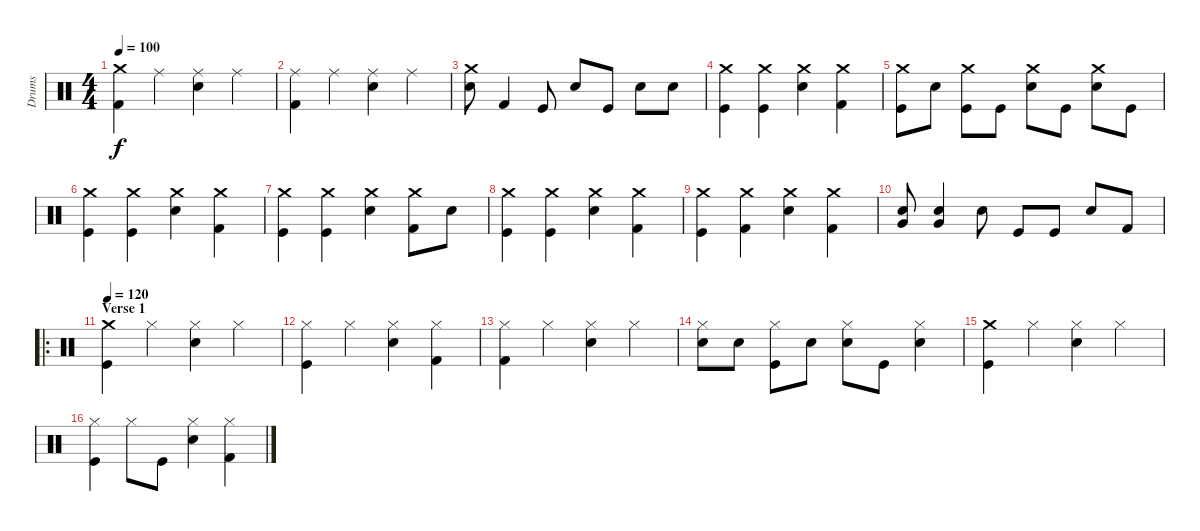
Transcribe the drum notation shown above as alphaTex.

\track ("Drums" "Drums") {instrument percussion}
\staff {score}
\articulation defaults
\ts (4 4)
\tempo 100
\clef neutral
\ks c
("Crash medium (hit)" "Kick (hit) 2").4{dy f} "Ride (middle)".4 ("Ride (middle)" "Electric Snare (hit)").4 "Ride (middle)".4 |
("Ride (middle)" "Kick (hit) 2").4 "Ride (middle)".4 ("Ride (middle)" "Electric Snare (hit)").4 "Ride (middle)".4 |
("Crash medium (hit)" "Electric Snare (hit)").8 "Kick (hit) 2".4 "Kick (hit)".8 "Electric Snare (hit)".8 "Kick (hit)".8 "Electric Snare (hit)".8 "Electric Snare (hit)".8 |
("Crash medium (hit)" "Kick (hit)").4 ("Crash medium (hit)" "Kick (hit)").4 ("Crash medium (hit)" "Electric Snare (hit)").4 ("Crash medium (hit)" "Kick (hit) 2").4 |
("Crash medium (hit)" "Kick (hit)").8 "Electric Snare (hit)".8 ("Crash medium (hit)" "Kick (hit)").8 "Kick (hit)".8 ("Crash medium (hit)" "Electric Snare (hit)").8 "Kick (hit)".8 ("Crash medium (hit)" "Electric Snare (hit)").8 "Kick (hit)".8 |
("Crash medium (hit)" "Kick (hit)").4 ("Crash medium (hit)" "Kick (hit)").4 ("Crash medium (hit)" "Electric Snare (hit)").4 ("Crash medium (hit)" "Kick (hit) 2").4 |
("Crash medium (hit)" "Kick (hit)").4 ("Crash medium (hit)" "Kick (hit)").4 ("Crash medium (hit)" "Electric Snare (hit)").4 ("Crash medium (hit)" "Kick (hit) 2").8 "Electric Snare (hit)".8 |
("Crash medium (hit)" "Kick (hit)").4 ("Crash medium (hit)" "Kick (hit)").4 ("Crash medium (hit)" "Electric Snare (hit)").4 ("Crash medium (hit)" "Kick (hit) 2").4 |
("Crash medium (hit)" "Kick (hit)").4 ("Crash medium (hit)" "Kick (hit) 2").4 ("Crash medium (hit)" "Electric Snare (hit)").4 ("Crash medium (hit)" "Kick (hit) 2").4 |
("Electric Snare (hit)" "Very Low Tom (hit)").8 ("Electric Snare (hit)" "Very Low Tom (hit)").4 "Electric Snare (hit)".8 "Kick (hit)".8 "Kick (hit)".8 "Electric Snare (hit)".8 "Kick (hit) 2".8 |
\ro
\section ("" "Verse 1")
\tempo 120
("Crash medium (hit)" "Kick (hit)").4 "Hi-Hat (closed)".4 ("Hi-Hat (closed)" "Electric Snare (hit)").4 "Hi-Hat (closed)".4 |
("Hi-Hat (closed)" "Kick (hit)").4 "Hi-Hat (closed)".4 ("Hi-Hat (closed)" "Electric Snare (hit)").4 ("Hi-Hat (closed)" "Kick (hit) 2").4 |
("Hi-Hat (closed)" "Kick (hit) 2").4 "Hi-Hat (closed)".4 ("Hi-Hat (closed)" "Electric Snare (hit)").4 "Hi-Hat (closed)".4 |
("Hi-Hat (closed)" "Electric Snare (hit)").8 "Electric Snare (hit)".8 ("Hi-Hat (closed)" "Kick (hit)").8 "Electric Snare (hit)".8 ("Hi-Hat (closed)" "Electric Snare (hit)").8 "Kick (hit)".8 ("Hi-Hat (closed)" "Electric Snare (hit)").4 |
("Crash medium (hit)" "Kick (hit)").4 "Hi-Hat (closed)".4 ("Hi-Hat (closed)" "Electric Snare (hit)").4 "Hi-Hat (closed)".4 |
("Hi-Hat (closed)" "Kick (hit)").4 "Hi-Hat (closed)".8 "Kick (hit)".8 ("Hi-Hat (closed)" "Electric Snare (hit)").4 ("Hi-Hat (closed)" "Kick (hit) 2").4
